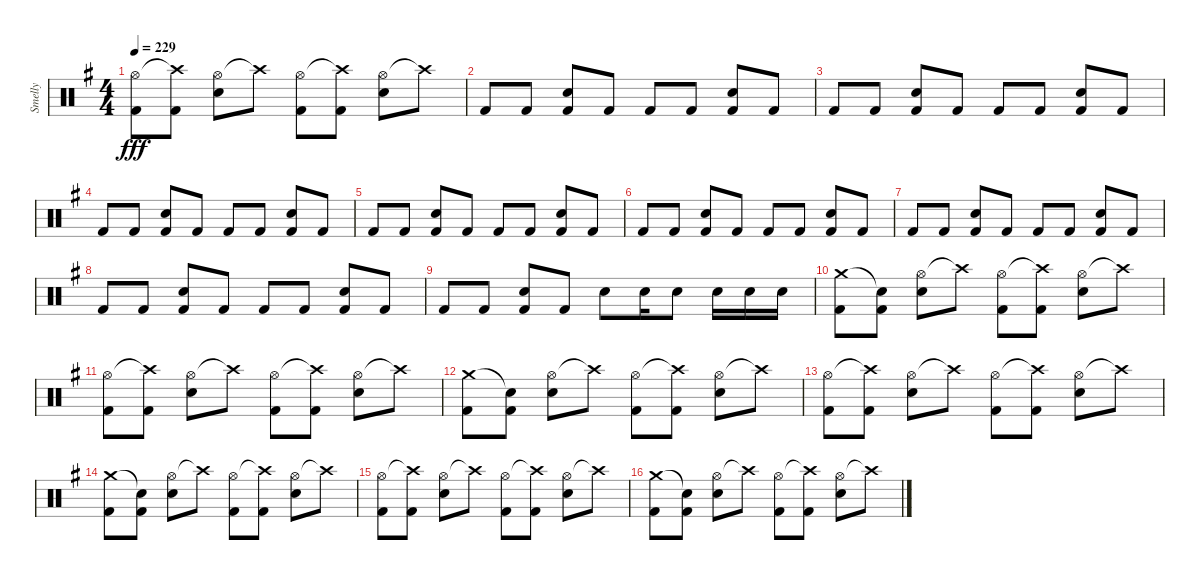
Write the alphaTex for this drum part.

\track ("Smelly" "Smelly") {instrument percussion}
\staff {score}
\articulation defaults
\ts (4 4)
\tempo 229
\clef neutral
\ks eminor
("Hi-Hat (open)" "Kick (hit) 2").8{dy fff} ("Crash high (hit)"{t} "Kick (hit) 2").8 ("Hi-Hat (open)" "Electric Snare (hit)").8 "Crash high (hit)"{t}.8 ("Hi-Hat (open)" "Kick (hit) 2").8 ("Crash high (hit)"{t} "Kick (hit) 2").8 ("Hi-Hat (open)" "Electric Snare (hit)").8 "Crash high (hit)"{t}.8 |
"Kick (hit) 2".8 "Kick (hit) 2".8 ("Electric Snare (hit)" "Kick (hit) 2").8 "Kick (hit) 2".8 "Kick (hit) 2".8 "Kick (hit) 2".8 ("Electric Snare (hit)" "Kick (hit) 2").8 "Kick (hit) 2".8 |
"Kick (hit) 2".8 "Kick (hit) 2".8 ("Electric Snare (hit)" "Kick (hit) 2").8 "Kick (hit) 2".8 "Kick (hit) 2".8 "Kick (hit) 2".8 ("Electric Snare (hit)" "Kick (hit) 2").8 "Kick (hit) 2".8 |
"Kick (hit) 2".8 "Kick (hit) 2".8 ("Electric Snare (hit)" "Kick (hit) 2").8 "Kick (hit) 2".8 "Kick (hit) 2".8 "Kick (hit) 2".8 ("Electric Snare (hit)" "Kick (hit) 2").8 "Kick (hit) 2".8 |
"Kick (hit) 2".8 "Kick (hit) 2".8 ("Electric Snare (hit)" "Kick (hit) 2").8 "Kick (hit) 2".8 "Kick (hit) 2".8 "Kick (hit) 2".8 ("Electric Snare (hit)" "Kick (hit) 2").8 "Kick (hit) 2".8 |
"Kick (hit) 2".8 "Kick (hit) 2".8 ("Electric Snare (hit)" "Kick (hit) 2").8 "Kick (hit) 2".8 "Kick (hit) 2".8 "Kick (hit) 2".8 ("Electric Snare (hit)" "Kick (hit) 2").8 "Kick (hit) 2".8 |
"Kick (hit) 2".8 "Kick (hit) 2".8 ("Electric Snare (hit)" "Kick (hit) 2").8 "Kick (hit) 2".8 "Kick (hit) 2".8 "Kick (hit) 2".8 ("Electric Snare (hit)" "Kick (hit) 2").8 "Kick (hit) 2".8 |
"Kick (hit) 2".8 "Kick (hit) 2".8 ("Electric Snare (hit)" "Kick (hit) 2").8 "Kick (hit) 2".8 "Kick (hit) 2".8 "Kick (hit) 2".8 ("Electric Snare (hit)" "Kick (hit) 2").8 "Kick (hit) 2".8 |
"Kick (hit) 2".8 "Kick (hit) 2".8 ("Electric Snare (hit)" "Kick (hit) 2").8 "Kick (hit) 2".8 "Electric Snare (hit)".8 "Electric Snare (hit)".16 "Electric Snare (hit)".8 "Electric Snare (hit)".16 "Electric Snare (hit)".16 "Electric Snare (hit)".16 |
("Crash medium (hit)" "Kick (hit) 2").8 ("Snare (hit)"{t} "Kick (hit) 2").8 ("Hi-Hat (open)" "Electric Snare (hit)").8 "Crash high (hit)"{t}.8 ("Hi-Hat (open)" "Kick (hit) 2").8 ("Crash high (hit)"{t} "Kick (hit) 2").8 ("Hi-Hat (open)" "Electric Snare (hit)").8 "Crash high (hit)"{t}.8 |
("Hi-Hat (open)" "Kick (hit) 2").8 ("Crash high (hit)"{t} "Kick (hit) 2").8 ("Hi-Hat (open)" "Electric Snare (hit)").8 "Crash high (hit)"{t}.8 ("Hi-Hat (open)" "Kick (hit) 2").8 ("Crash high (hit)"{t} "Kick (hit) 2").8 ("Hi-Hat (open)" "Electric Snare (hit)").8 "Crash high (hit)"{t}.8 |
("Crash medium (hit)" "Kick (hit) 2").8 ("Snare (hit)"{t} "Kick (hit) 2").8 ("Hi-Hat (open)" "Electric Snare (hit)").8 "Crash high (hit)"{t}.8 ("Hi-Hat (open)" "Kick (hit) 2").8 ("Crash high (hit)"{t} "Kick (hit) 2").8 ("Hi-Hat (open)" "Electric Snare (hit)").8 "Crash high (hit)"{t}.8 |
("Hi-Hat (open)" "Kick (hit) 2").8 ("Crash high (hit)"{t} "Kick (hit) 2").8 ("Hi-Hat (open)" "Electric Snare (hit)").8 "Crash high (hit)"{t}.8 ("Hi-Hat (open)" "Kick (hit) 2").8 ("Crash high (hit)"{t} "Kick (hit) 2").8 ("Hi-Hat (open)" "Electric Snare (hit)").8 "Crash high (hit)"{t}.8 |
("Crash medium (hit)" "Kick (hit) 2").8 ("Snare (hit)"{t} "Kick (hit) 2").8 ("Hi-Hat (open)" "Electric Snare (hit)").8 "Crash high (hit)"{t}.8 ("Hi-Hat (open)" "Kick (hit) 2").8 ("Crash high (hit)"{t} "Kick (hit) 2").8 ("Hi-Hat (open)" "Electric Snare (hit)").8 "Crash high (hit)"{t}.8 |
("Hi-Hat (open)" "Kick (hit) 2").8 ("Crash high (hit)"{t} "Kick (hit) 2").8 ("Hi-Hat (open)" "Electric Snare (hit)").8 "Crash high (hit)"{t}.8 ("Hi-Hat (open)" "Kick (hit) 2").8 ("Crash high (hit)"{t} "Kick (hit) 2").8 ("Hi-Hat (open)" "Electric Snare (hit)").8 "Crash high (hit)"{t}.8 |
("Crash medium (hit)" "Kick (hit) 2").8 ("Snare (hit)"{t} "Kick (hit) 2").8 ("Hi-Hat (open)" "Electric Snare (hit)").8 "Crash high (hit)"{t}.8 ("Hi-Hat (open)" "Kick (hit) 2").8 ("Crash high (hit)"{t} "Kick (hit) 2").8 ("Hi-Hat (open)" "Electric Snare (hit)").8 "Crash high (hit)"{t}.8
